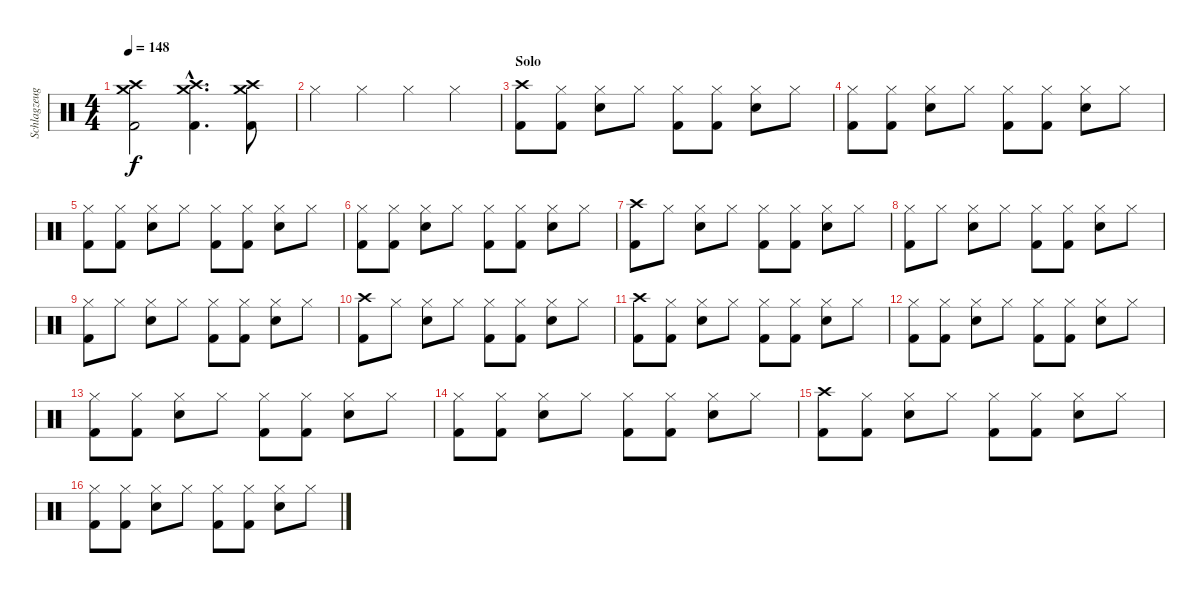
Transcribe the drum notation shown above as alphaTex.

\track ("Schlagzeug" "Schlagzeug") {instrument percussion}
\staff {score}
\articulation defaults
\ts (4 4)
\tempo 148
\clef neutral
\ks c
("Crash high (hit)" "Crash medium (hit)" "Kick (hit) 2").2{dy f} ("Crash high (hit)"{hac} "Crash medium (hit)"{hac} "Kick (hit) 2"{hac}).4{d} ("Crash high (hit)" "Crash medium (hit)" "Kick (hit) 2").8 |
"Hi-Hat (closed)".4 "Hi-Hat (closed)".4 "Hi-Hat (closed)".4 "Hi-Hat (closed)".4 |
\section ("" "Solo")
("Crash high (hit)" "Kick (hit) 2").8 ("Hi-Hat (closed)" "Kick (hit) 2").8 ("Hi-Hat (closed)" "Electric Snare (hit)").8 "Hi-Hat (closed)".8 ("Hi-Hat (closed)" "Kick (hit) 2").8 ("Hi-Hat (closed)" "Kick (hit) 2").8 ("Hi-Hat (closed)" "Electric Snare (hit)").8 "Hi-Hat (closed)".8 |
("Hi-Hat (closed)" "Kick (hit) 2").8 ("Hi-Hat (closed)" "Kick (hit) 2").8 ("Hi-Hat (closed)" "Electric Snare (hit)").8 "Hi-Hat (closed)".8 ("Hi-Hat (closed)" "Kick (hit) 2").8 ("Hi-Hat (closed)" "Kick (hit) 2").8 ("Hi-Hat (closed)" "Electric Snare (hit)").8 "Hi-Hat (closed)".8 |
("Hi-Hat (closed)" "Kick (hit) 2").8 ("Hi-Hat (closed)" "Kick (hit) 2").8 ("Hi-Hat (closed)" "Electric Snare (hit)").8 "Hi-Hat (closed)".8 ("Hi-Hat (closed)" "Kick (hit) 2").8 ("Hi-Hat (closed)" "Kick (hit) 2").8 ("Hi-Hat (closed)" "Electric Snare (hit)").8 "Hi-Hat (closed)".8 |
("Hi-Hat (closed)" "Kick (hit) 2").8 ("Hi-Hat (closed)" "Kick (hit) 2").8 ("Hi-Hat (closed)" "Electric Snare (hit)").8 "Hi-Hat (closed)".8 ("Hi-Hat (closed)" "Kick (hit) 2").8 ("Hi-Hat (closed)" "Kick (hit) 2").8 ("Hi-Hat (closed)" "Electric Snare (hit)").8 "Hi-Hat (closed)".8 |
("Crash high (hit)" "Kick (hit) 2").8 "Hi-Hat (closed)".8 ("Hi-Hat (closed)" "Electric Snare (hit)").8 "Hi-Hat (closed)".8 ("Hi-Hat (closed)" "Kick (hit) 2").8 ("Hi-Hat (closed)" "Kick (hit) 2").8 ("Hi-Hat (closed)" "Electric Snare (hit)").8 "Hi-Hat (closed)".8 |
("Hi-Hat (closed)" "Kick (hit) 2").8 "Hi-Hat (closed)".8 ("Hi-Hat (closed)" "Electric Snare (hit)").8 "Hi-Hat (closed)".8 ("Hi-Hat (closed)" "Kick (hit) 2").8 ("Hi-Hat (closed)" "Kick (hit) 2").8 ("Hi-Hat (closed)" "Electric Snare (hit)").8 "Hi-Hat (closed)".8 |
("Hi-Hat (closed)" "Kick (hit) 2").8 "Hi-Hat (closed)".8 ("Hi-Hat (closed)" "Electric Snare (hit)").8 "Hi-Hat (closed)".8 ("Hi-Hat (closed)" "Kick (hit) 2").8 ("Hi-Hat (closed)" "Kick (hit) 2").8 ("Hi-Hat (closed)" "Electric Snare (hit)").8 "Hi-Hat (closed)".8 |
("Crash high (hit)" "Kick (hit) 2").8 "Hi-Hat (closed)".8 ("Hi-Hat (closed)" "Electric Snare (hit)").8 "Hi-Hat (closed)".8 ("Hi-Hat (closed)" "Kick (hit) 2").8 ("Hi-Hat (closed)" "Kick (hit) 2").8 ("Hi-Hat (closed)" "Electric Snare (hit)").8 "Hi-Hat (closed)".8 |
("Crash high (hit)" "Kick (hit) 2").8 ("Hi-Hat (closed)" "Kick (hit) 2").8 ("Hi-Hat (closed)" "Electric Snare (hit)").8 "Hi-Hat (closed)".8 ("Hi-Hat (closed)" "Kick (hit) 2").8 ("Hi-Hat (closed)" "Kick (hit) 2").8 ("Hi-Hat (closed)" "Electric Snare (hit)").8 "Hi-Hat (closed)".8 |
("Hi-Hat (closed)" "Kick (hit) 2").8 ("Hi-Hat (closed)" "Kick (hit) 2").8 ("Hi-Hat (closed)" "Electric Snare (hit)").8 "Hi-Hat (closed)".8 ("Hi-Hat (closed)" "Kick (hit) 2").8 ("Hi-Hat (closed)" "Kick (hit) 2").8 ("Hi-Hat (closed)" "Electric Snare (hit)").8 "Hi-Hat (closed)".8 |
("Hi-Hat (closed)" "Kick (hit) 2").8 ("Hi-Hat (closed)" "Kick (hit) 2").8 ("Hi-Hat (closed)" "Electric Snare (hit)").8 "Hi-Hat (closed)".8 ("Hi-Hat (closed)" "Kick (hit) 2").8 ("Hi-Hat (closed)" "Kick (hit) 2").8 ("Hi-Hat (closed)" "Electric Snare (hit)").8 "Hi-Hat (closed)".8 |
("Hi-Hat (closed)" "Kick (hit) 2").8 ("Hi-Hat (closed)" "Kick (hit) 2").8 ("Hi-Hat (closed)" "Electric Snare (hit)").8 "Hi-Hat (closed)".8 ("Hi-Hat (closed)" "Kick (hit) 2").8 ("Hi-Hat (closed)" "Kick (hit) 2").8 ("Hi-Hat (closed)" "Electric Snare (hit)").8 "Hi-Hat (closed)".8 |
("Crash high (hit)" "Kick (hit) 2").8 ("Hi-Hat (closed)" "Kick (hit) 2").8 ("Hi-Hat (closed)" "Electric Snare (hit)").8 "Hi-Hat (closed)".8 ("Hi-Hat (closed)" "Kick (hit) 2").8 ("Hi-Hat (closed)" "Kick (hit) 2").8 ("Hi-Hat (closed)" "Electric Snare (hit)").8 "Hi-Hat (closed)".8 |
("Hi-Hat (closed)" "Kick (hit) 2").8 ("Hi-Hat (closed)" "Kick (hit) 2").8 ("Hi-Hat (closed)" "Electric Snare (hit)").8 "Hi-Hat (closed)".8 ("Hi-Hat (closed)" "Kick (hit) 2").8 ("Hi-Hat (closed)" "Kick (hit) 2").8 ("Hi-Hat (closed)" "Electric Snare (hit)").8 "Hi-Hat (closed)".8
